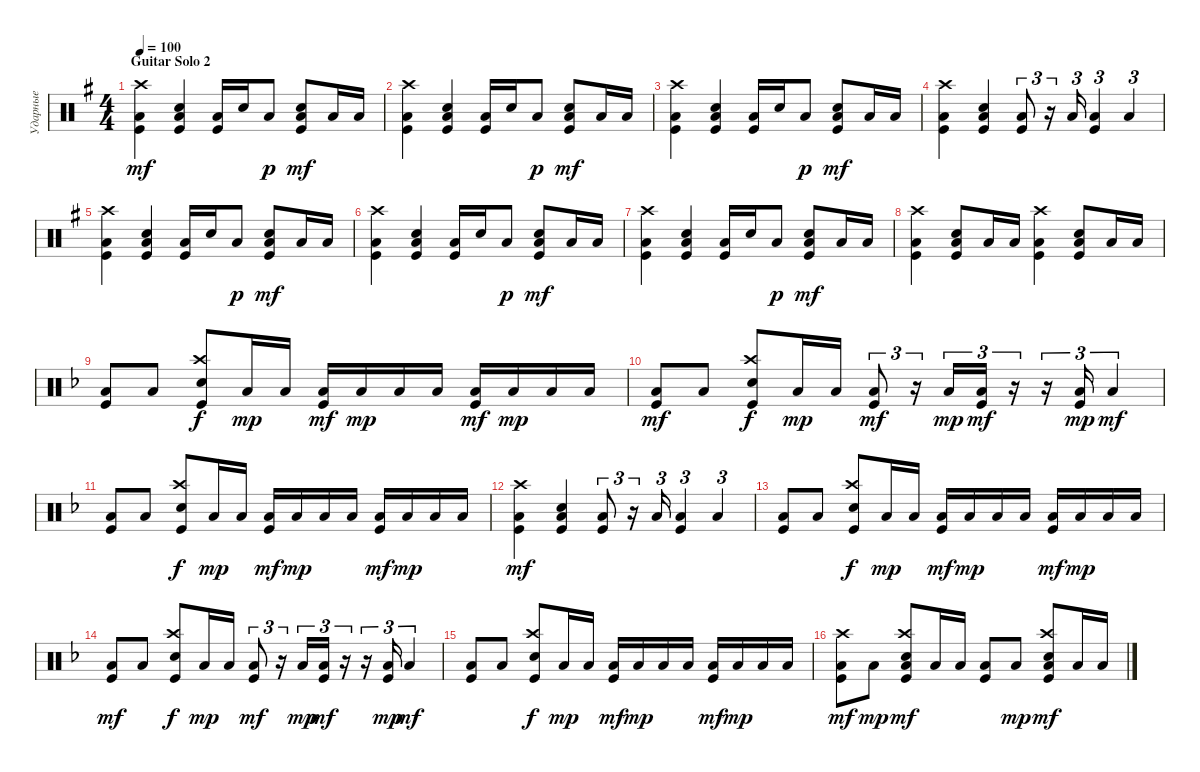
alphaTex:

\track ("Ударные" "Ударные") {instrument percussion}
\staff {score}
\articulation defaults
\ts (4 4)
\section ("" "Guitar Solo 2")
\tempo 100
\clef neutral
\ks eminor
("Kick (hit)" "Low Floor Tom (hit)" "Crash high (hit)").4{bd 120 dy mf} ("Kick (hit)" "Low Floor Tom (hit)" "Snare (hit) 2").4{bd 120} ("Kick (hit)" "Low Floor Tom (hit)").16{bd 240} "Snare (hit) 2".16 "Low Floor Tom (hit)".8{dy p} ("Kick (hit)" "Snare (hit) 2" "Low Floor Tom (hit)").8{bd 120 dy mf} "Low Floor Tom (hit)".16 "Low Floor Tom (hit)".16 |
("Kick (hit)" "Low Floor Tom (hit)" "Crash high (hit)").4{bd 120} ("Kick (hit)" "Low Floor Tom (hit)" "Snare (hit) 2").4{bd 120} ("Kick (hit)" "Low Floor Tom (hit)").16{bd 240} "Snare (hit) 2".16 "Low Floor Tom (hit)".8{dy p} ("Kick (hit)" "Snare (hit) 2" "Low Floor Tom (hit)").8{bd 120 dy mf} "Low Floor Tom (hit)".16 "Low Floor Tom (hit)".16 |
("Kick (hit)" "Low Floor Tom (hit)" "Crash high (hit)").4{bd 120} ("Kick (hit)" "Low Floor Tom (hit)" "Snare (hit) 2").4{bd 120} ("Kick (hit)" "Low Floor Tom (hit)").16{bd 240} "Snare (hit) 2".16 "Low Floor Tom (hit)".8{dy p} ("Kick (hit)" "Snare (hit) 2" "Low Floor Tom (hit)").8{bd 120 dy mf} "Low Floor Tom (hit)".16 "Low Floor Tom (hit)".16 |
("Kick (hit)" "Low Floor Tom (hit)" "Crash high (hit)").4{bd 120} ("Kick (hit)" "Low Floor Tom (hit)" "Snare (hit) 2").4{bd 120} ("Kick (hit)" "Low Floor Tom (hit)").8{tu (3 2) bd 240} r.16{tu (3 2)} "Low Floor Tom (hit)".16{tu (3 2) bd 60} ("Kick (hit)" "Low Floor Tom (hit)").4{tu (3 2)} "Low Floor Tom (hit)".4{tu (3 2)} |
("Kick (hit)" "Low Floor Tom (hit)" "Crash high (hit)").4{bd 120} ("Kick (hit)" "Low Floor Tom (hit)" "Snare (hit) 2").4{bd 120} ("Kick (hit)" "Low Floor Tom (hit)").16{bd 240} "Snare (hit) 2".16 "Low Floor Tom (hit)".8{dy p} ("Kick (hit)" "Snare (hit) 2" "Low Floor Tom (hit)").8{bd 120 dy mf} "Low Floor Tom (hit)".16 "Low Floor Tom (hit)".16 |
("Kick (hit)" "Low Floor Tom (hit)" "Crash high (hit)").4{bd 120} ("Kick (hit)" "Low Floor Tom (hit)" "Snare (hit) 2").4{bd 120} ("Kick (hit)" "Low Floor Tom (hit)").16{bd 240} "Snare (hit) 2".16 "Low Floor Tom (hit)".8{dy p} ("Kick (hit)" "Snare (hit) 2" "Low Floor Tom (hit)").8{bd 120 dy mf} "Low Floor Tom (hit)".16 "Low Floor Tom (hit)".16 |
("Kick (hit)" "Low Floor Tom (hit)" "Crash high (hit)").4{bd 120} ("Kick (hit)" "Low Floor Tom (hit)" "Snare (hit) 2").4{bd 120} ("Kick (hit)" "Low Floor Tom (hit)").16{bd 240} "Snare (hit) 2".16 "Low Floor Tom (hit)".8{dy p} ("Kick (hit)" "Snare (hit) 2" "Low Floor Tom (hit)").8{bd 120 dy mf} "Low Floor Tom (hit)".16 "Low Floor Tom (hit)".16 |
("Kick (hit)" "Low Floor Tom (hit)" "Crash high (hit)").4{bd 120} ("Kick (hit)" "Snare (hit) 2" "Low Floor Tom (hit)").8{bd 120} "Low Floor Tom (hit)".16 "Low Floor Tom (hit)".16 ("Kick (hit)" "Low Floor Tom (hit)" "Crash high (hit)").4{bd 240} ("Kick (hit)" "Snare (hit) 2" "Low Floor Tom (hit)").8{bd 120} "Low Floor Tom (hit)".16 "Low Floor Tom (hit)".16 |
\ks dminor
("Kick (hit)" "Low Floor Tom (hit)").8{bd 120} "Low Floor Tom (hit)".8 ("Snare (hit) 2" "Kick (hit)" "Crash high (hit)").8{bd 60 dy f} "Low Floor Tom (hit)".16{dy mp} "Low Floor Tom (hit)".16 ("Low Floor Tom (hit)" "Kick (hit)").16{dy mf} "Low Floor Tom (hit)".16{dy mp} "Low Floor Tom (hit)".16 "Low Floor Tom (hit)".16 ("Low Floor Tom (hit)" "Kick (hit)").16{dy mf} "Low Floor Tom (hit)".16{dy mp} "Low Floor Tom (hit)".16 "Low Floor Tom (hit)".16 |
("Kick (hit)" "Low Floor Tom (hit)").8{bd 120 dy mf} "Low Floor Tom (hit)".8 ("Snare (hit) 2" "Kick (hit)" "Crash high (hit)").8{bd 60 dy f} "Low Floor Tom (hit)".16{dy mp} "Low Floor Tom (hit)".16 ("Kick (hit)" "Low Floor Tom (hit)").8{tu (3 2) bd 240 dy mf} r.16{tu (3 2)} "Low Floor Tom (hit)".16{tu (3 2) bd 60 dy mp} ("Kick (hit)" "Low Floor Tom (hit)").16{tu (3 2) dy mf} r.16{tu (3 2)} r.16{tu (3 2)} ("Kick (hit)" "Low Floor Tom (hit)").16{tu (3 2) dy mp} "Low Floor Tom (hit)".4{tu (3 2) dy mf} |
("Kick (hit)" "Low Floor Tom (hit)").8{bd 120} "Low Floor Tom (hit)".8 ("Snare (hit) 2" "Kick (hit)" "Crash high (hit)").8{bd 60 dy f} "Low Floor Tom (hit)".16{dy mp} "Low Floor Tom (hit)".16 ("Low Floor Tom (hit)" "Kick (hit)").16{dy mf} "Low Floor Tom (hit)".16{dy mp} "Low Floor Tom (hit)".16 "Low Floor Tom (hit)".16 ("Low Floor Tom (hit)" "Kick (hit)").16{dy mf} "Low Floor Tom (hit)".16{dy mp} "Low Floor Tom (hit)".16 "Low Floor Tom (hit)".16 |
("Kick (hit)" "Low Floor Tom (hit)" "Crash high (hit)").4{bd 120 dy mf} ("Kick (hit)" "Low Floor Tom (hit)" "Snare (hit) 2").4{bd 120} ("Kick (hit)" "Low Floor Tom (hit)").8{tu (3 2) bd 240} r.16{tu (3 2)} "Low Floor Tom (hit)".16{tu (3 2) bd 60} ("Kick (hit)" "Low Floor Tom (hit)").4{tu (3 2)} "Low Floor Tom (hit)".4{tu (3 2)} |
("Kick (hit)" "Low Floor Tom (hit)").8{bd 120} "Low Floor Tom (hit)".8 ("Snare (hit) 2" "Kick (hit)" "Crash high (hit)").8{bd 60 dy f} "Low Floor Tom (hit)".16{dy mp} "Low Floor Tom (hit)".16 ("Low Floor Tom (hit)" "Kick (hit)").16{dy mf} "Low Floor Tom (hit)".16{dy mp} "Low Floor Tom (hit)".16 "Low Floor Tom (hit)".16 ("Low Floor Tom (hit)" "Kick (hit)").16{dy mf} "Low Floor Tom (hit)".16{dy mp} "Low Floor Tom (hit)".16 "Low Floor Tom (hit)".16 |
("Kick (hit)" "Low Floor Tom (hit)").8{bd 120 dy mf} "Low Floor Tom (hit)".8 ("Snare (hit) 2" "Kick (hit)" "Crash high (hit)").8{bd 60 dy f} "Low Floor Tom (hit)".16{dy mp} "Low Floor Tom (hit)".16 ("Kick (hit)" "Low Floor Tom (hit)").8{tu (3 2) bd 240 dy mf} r.16{tu (3 2)} "Low Floor Tom (hit)".16{tu (3 2) bd 60 dy mp} ("Kick (hit)" "Low Floor Tom (hit)").16{tu (3 2) dy mf} r.16{tu (3 2)} r.16{tu (3 2)} ("Kick (hit)" "Low Floor Tom (hit)").16{tu (3 2) dy mp} "Low Floor Tom (hit)".4{tu (3 2) dy mf} |
("Kick (hit)" "Low Floor Tom (hit)").8{bd 120} "Low Floor Tom (hit)".8 ("Snare (hit) 2" "Kick (hit)" "Crash high (hit)").8{bd 60 dy f} "Low Floor Tom (hit)".16{dy mp} "Low Floor Tom (hit)".16 ("Low Floor Tom (hit)" "Kick (hit)").16{dy mf} "Low Floor Tom (hit)".16{dy mp} "Low Floor Tom (hit)".16 "Low Floor Tom (hit)".16 ("Low Floor Tom (hit)" "Kick (hit)").16{dy mf} "Low Floor Tom (hit)".16{dy mp} "Low Floor Tom (hit)".16 "Low Floor Tom (hit)".16 |
("Kick (hit)" "Low Floor Tom (hit)" "Crash high (hit)").8{bd 120 dy mf} "Low Floor Tom (hit)".8{dy mp} ("Kick (hit)" "Snare (hit) 2" "Low Floor Tom (hit)" "Crash high (hit)").8{bd 120 dy mf} "Low Floor Tom (hit)".16 "Low Floor Tom (hit)".16 ("Kick (hit)" "Low Floor Tom (hit)").8{bd 240} "Low Floor Tom (hit)".8{dy mp} ("Kick (hit)" "Snare (hit) 2" "Low Floor Tom (hit)" "Crash high (hit)").8{bd 120 dy mf} "Low Floor Tom (hit)".16 "Low Floor Tom (hit)".16
